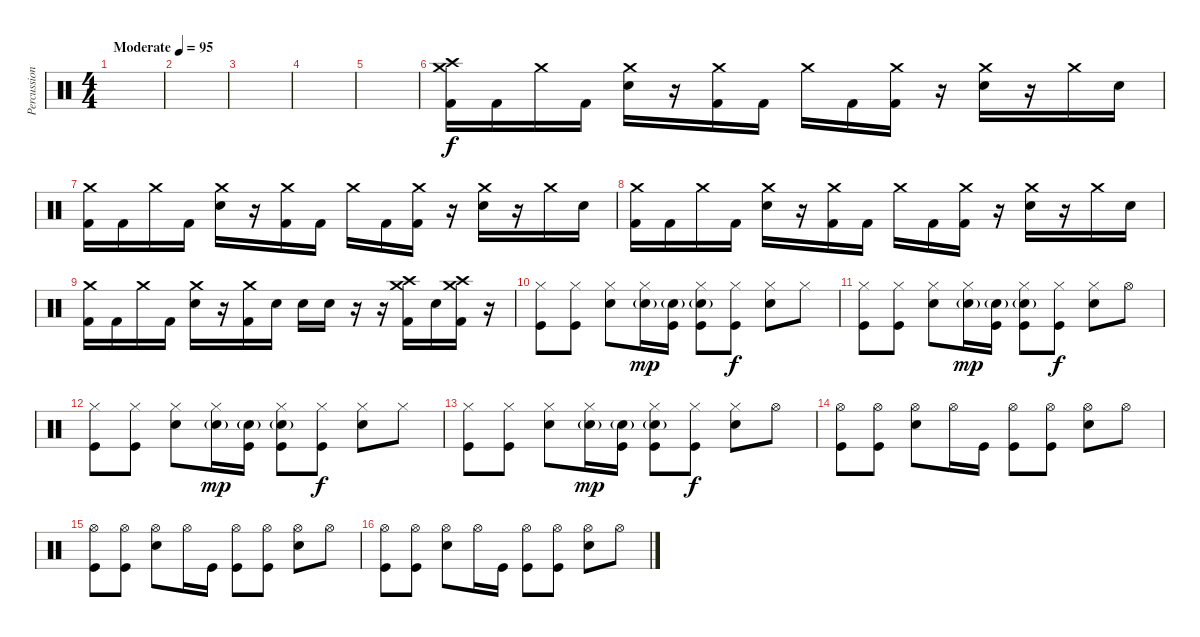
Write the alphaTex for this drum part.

\track ("Percussion" "Percussion") {instrument percussion}
\staff {score}
\articulation defaults
\ts (4 4)
\tempo (95 "Moderate")
\clef neutral
\ks c
|
|
|
|
|
("Crash medium (hit)" "Crash high (hit)" "Kick (hit) 2").16 "Kick (hit) 2".16 "Crash medium (hit)".16 "Kick (hit) 2".16 ("Crash medium (hit)" "Electric Snare (hit)").16 r.16 ("Crash medium (hit)" "Kick (hit) 2").16 "Kick (hit) 2".16 "Crash medium (hit)".16 "Kick (hit) 2".16 ("Crash medium (hit)" "Kick (hit) 2").16 r.16 ("Crash medium (hit)" "Electric Snare (hit)").16 r.16 "Crash medium (hit)".16 "Electric Snare (hit)".16 |
("Crash medium (hit)" "Kick (hit) 2").16 "Kick (hit) 2".16 "Crash medium (hit)".16 "Kick (hit) 2".16 ("Crash medium (hit)" "Electric Snare (hit)").16 r.16 ("Crash medium (hit)" "Kick (hit) 2").16 "Kick (hit) 2".16 "Crash medium (hit)".16 "Kick (hit) 2".16 ("Crash medium (hit)" "Kick (hit) 2").16 r.16 ("Crash medium (hit)" "Electric Snare (hit)").16 r.16 "Crash medium (hit)".16 "Electric Snare (hit)".16 |
("Crash medium (hit)" "Kick (hit) 2").16 "Kick (hit) 2".16 "Crash medium (hit)".16 "Kick (hit) 2".16 ("Crash medium (hit)" "Electric Snare (hit)").16 r.16 ("Crash medium (hit)" "Kick (hit) 2").16 "Kick (hit) 2".16 "Crash medium (hit)".16 "Kick (hit) 2".16 ("Crash medium (hit)" "Kick (hit) 2").16 r.16 ("Crash medium (hit)" "Electric Snare (hit)").16 r.16 "Crash medium (hit)".16 "Electric Snare (hit)".16 |
("Crash medium (hit)" "Kick (hit) 2").16 "Kick (hit) 2".16 "Crash medium (hit)".16 "Kick (hit) 2".16 ("Crash medium (hit)" "Electric Snare (hit)").16 r.16 ("Crash medium (hit)" "Kick (hit) 2").16 "Electric Snare (hit)".16 "Electric Snare (hit)".16 "Electric Snare (hit)".16 r.16 r.16 ("Crash medium (hit)" "Crash high (hit)" "Kick (hit) 2").16 "Electric Snare (hit)".16 ("Crash medium (hit)" "Crash high (hit)" "Kick (hit) 2").16 r.16 |
("Hi-Hat (closed)" "Kick (hit)").8 ("Hi-Hat (closed)" "Kick (hit)").8 ("Hi-Hat (closed)" "Electric Snare (hit)").8 ("Hi-Hat (closed)" "Electric Snare (hit)"{g}).16{dy mp} ("Electric Snare (hit)"{g} "Kick (hit)").16 ("Hi-Hat (closed)" "Electric Snare (hit)"{g} "Kick (hit)").8 ("Hi-Hat (closed)" "Kick (hit)").8{dy f} ("Hi-Hat (closed)" "Snare (hit) 2").8 "Hi-Hat (closed)".8 |
("Hi-Hat (closed)" "Kick (hit)").8 ("Hi-Hat (closed)" "Kick (hit)").8 ("Hi-Hat (closed)" "Electric Snare (hit)").8 ("Hi-Hat (closed)" "Electric Snare (hit)"{g}).16{dy mp} ("Electric Snare (hit)"{g} "Kick (hit)").16 ("Hi-Hat (closed)" "Electric Snare (hit)"{g} "Kick (hit)").8 ("Hi-Hat (closed)" "Kick (hit)").8{dy f} ("Hi-Hat (closed)" "Electric Snare (hit)").8 "Hi-Hat (open)".8 |
("Hi-Hat (closed)" "Kick (hit)").8 ("Hi-Hat (closed)" "Kick (hit)").8 ("Hi-Hat (closed)" "Electric Snare (hit)").8 ("Hi-Hat (closed)" "Electric Snare (hit)"{g}).16{dy mp} ("Electric Snare (hit)"{g} "Kick (hit)").16 ("Hi-Hat (closed)" "Electric Snare (hit)"{g} "Kick (hit)").8 ("Hi-Hat (closed)" "Kick (hit)").8{dy f} ("Hi-Hat (closed)" "Snare (hit) 2").8 "Hi-Hat (closed)".8 |
("Hi-Hat (closed)" "Kick (hit)").8 ("Hi-Hat (closed)" "Kick (hit)").8 ("Hi-Hat (closed)" "Electric Snare (hit)").8 ("Hi-Hat (closed)" "Electric Snare (hit)"{g}).16{dy mp} ("Electric Snare (hit)"{g} "Kick (hit)").16 ("Hi-Hat (closed)" "Electric Snare (hit)"{g} "Kick (hit)").8 ("Hi-Hat (closed)" "Kick (hit)").8{dy f} ("Hi-Hat (closed)" "Electric Snare (hit)").8 "Hi-Hat (open)".8 |
("Hi-Hat (open)" "Kick (hit)").8 ("Hi-Hat (open)" "Kick (hit)").8 ("Hi-Hat (open)" "Snare (hit) 2").8 "Hi-Hat (open)".16 "Kick (hit)".16 ("Hi-Hat (open)" "Kick (hit)").8 ("Hi-Hat (open)" "Kick (hit)").8 ("Hi-Hat (open)" "Snare (hit) 2").8 "Hi-Hat (open)".8 |
("Hi-Hat (open)" "Kick (hit)").8 ("Hi-Hat (open)" "Kick (hit)").8 ("Hi-Hat (open)" "Snare (hit) 2").8 "Hi-Hat (open)".16 "Kick (hit)".16 ("Hi-Hat (open)" "Kick (hit)").8 ("Hi-Hat (open)" "Kick (hit)").8 ("Hi-Hat (open)" "Snare (hit) 2").8 "Hi-Hat (open)".8 |
("Hi-Hat (open)" "Kick (hit)").8 ("Hi-Hat (open)" "Kick (hit)").8 ("Hi-Hat (open)" "Snare (hit) 2").8 "Hi-Hat (open)".16 "Kick (hit)".16 ("Hi-Hat (open)" "Kick (hit)").8 ("Hi-Hat (open)" "Kick (hit)").8 ("Hi-Hat (open)" "Snare (hit) 2").8 "Hi-Hat (open)".8
